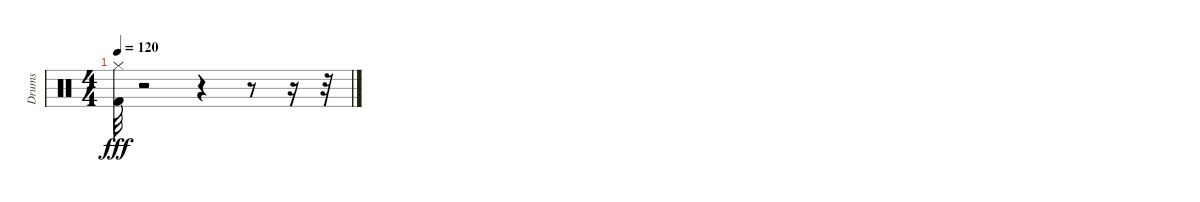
\track ("Drums" "Drums") {instrument percussion}
\staff {score}
\articulation defaults
\ts (4 4)
\tempo 120
\clef neutral
\ks c
("Hi-Hat (closed)" "Kick (hit) 2").32{dy fff} r.2 r.4 r.8 r.16 r.32
